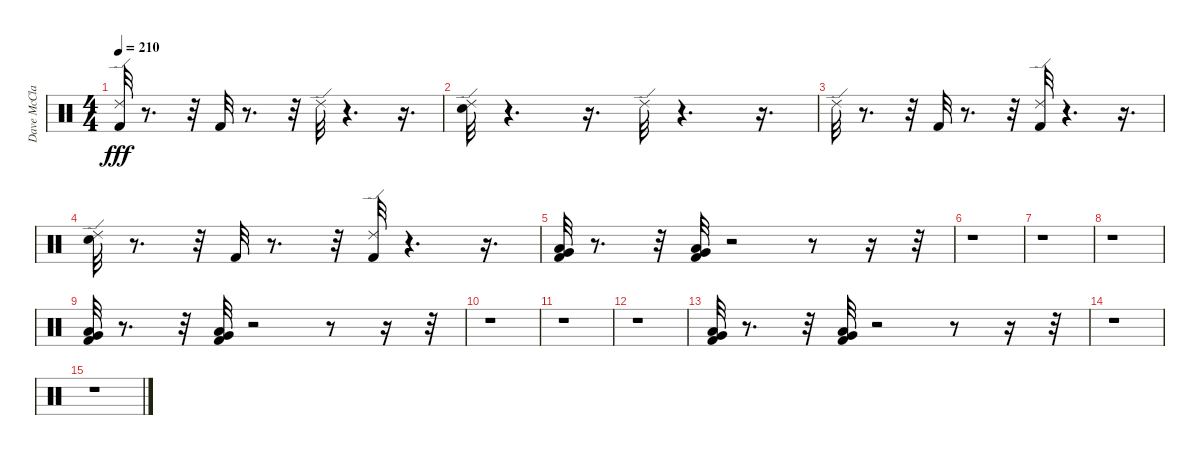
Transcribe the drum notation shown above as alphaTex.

\track ("Dave McClain" "Dave McCla") {instrument percussion}
\staff {score}
\articulation defaults
\ts (4 4)
\tempo 210
\clef neutral
\ks c
("Ride (edge) 2" "Kick (hit) 2").32{dy fff} r.8{d} r.32 "Kick (hit) 2".32 r.8{d} r.32 "Ride (edge) 2".32 r.4{d} r.16{d} |
("Ride (edge) 2" "Snare (hit) 2").32 r.4{d} r.16{d} "Ride (edge) 2".32 r.4{d} r.16{d} |
"Ride (edge) 2".32 r.8{d} r.32 "Kick (hit) 2".32 r.8{d} r.32 ("Kick (hit) 2" "Ride (edge) 2").32 r.4{d} r.16{d} |
("Snare (hit) 2" "Ride (edge) 2").32 r.8{d} r.32 "Kick (hit) 2".32 r.8{d} r.32 ("Kick (hit) 2" "Ride (edge) 2").32 r.4{d} r.16{d} |
("Very Low Tom (hit)" "Low Floor Tom (hit)" "Kick (hit) 2").32 r.8{d} r.32 ("Low Floor Tom (hit)" "Very Low Tom (hit)" "Kick (hit) 2").32 r.2 r.8 r.16 r.32 |
r.1 |
r.1 |
r.1 |
("Very Low Tom (hit)" "Low Floor Tom (hit)" "Kick (hit) 2").32 r.8{d} r.32 ("Low Floor Tom (hit)" "Very Low Tom (hit)" "Kick (hit) 2").32 r.2 r.8 r.16 r.32 |
r.1 |
r.1 |
r.1 |
("Very Low Tom (hit)" "Low Floor Tom (hit)" "Kick (hit) 2").32 r.8{d} r.32 ("Low Floor Tom (hit)" "Very Low Tom (hit)" "Kick (hit) 2").32 r.2 r.8 r.16 r.32 |
r.1 |
r.1
